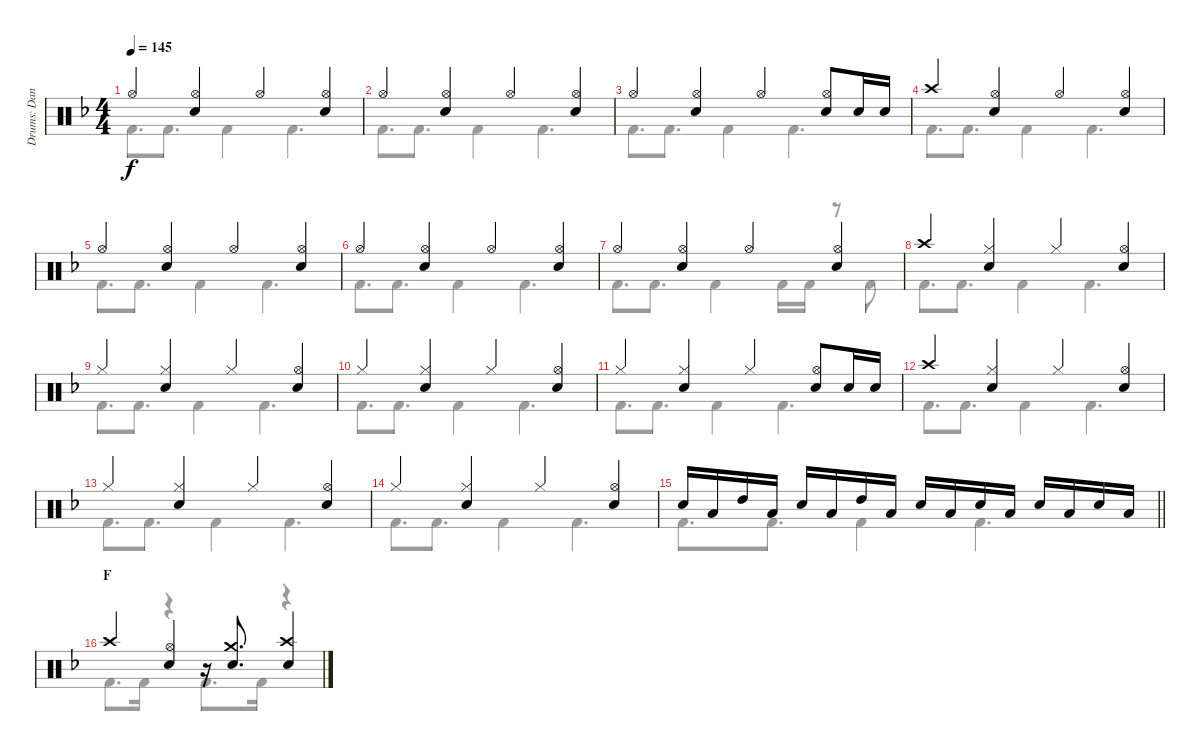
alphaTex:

\track ("Drums: Dana" "Drums: Dan") {instrument percussion}
\staff {score}
\articulation defaults
\voice
\ts (4 4)
\tempo 145
\clef neutral
\ks f "Hi-Hat (open)".4{dy f}
("Hi-Hat (open)" "Snare (hit) 2").4 "Hi-Hat (open)".4 ("Hi-Hat (open)" "Snare (hit) 2").4 |
"Hi-Hat (open)".4 ("Hi-Hat (open)" "Snare (hit) 2").4 "Hi-Hat (open)".4 ("Hi-Hat (open)" "Snare (hit) 2").4 |
"Hi-Hat (open)".4 ("Hi-Hat (open)" "Snare (hit) 2").4 "Hi-Hat (open)".4 ("Hi-Hat (open)" "Snare (hit) 2").8 "Snare (hit) 2".16 "Snare (hit) 2".16 |
"Crash high (hit)".4 ("Hi-Hat (open)" "Snare (hit) 2").4 "Hi-Hat (open)".4 ("Hi-Hat (open)" "Snare (hit) 2").4 |
"Hi-Hat (open)".4 ("Hi-Hat (open)" "Snare (hit) 2").4 "Hi-Hat (open)".4 ("Hi-Hat (open)" "Snare (hit) 2").4 |
"Hi-Hat (open)".4 ("Hi-Hat (open)" "Snare (hit) 2").4 "Hi-Hat (open)".4 ("Hi-Hat (open)" "Snare (hit) 2").4 |
"Hi-Hat (open)".4 ("Hi-Hat (open)" "Snare (hit) 2").4 "Hi-Hat (open)".4 ("Hi-Hat (open)" "Snare (hit) 2").4 |
"Crash high (hit)".4 ("Hi-Hat (closed)" "Snare (hit) 2").4 "Hi-Hat (closed)".4 ("Hi-Hat (open)" "Snare (hit) 2").4 |
"Hi-Hat (closed)".4 ("Hi-Hat (closed)" "Snare (hit) 2").4 "Hi-Hat (closed)".4 ("Hi-Hat (open)" "Snare (hit) 2").4 |
"Hi-Hat (closed)".4 ("Hi-Hat (closed)" "Snare (hit) 2").4 "Hi-Hat (closed)".4 ("Hi-Hat (open)" "Snare (hit) 2").4 |
"Hi-Hat (closed)".4 ("Hi-Hat (closed)" "Snare (hit) 2").4 "Hi-Hat (closed)".4 ("Hi-Hat (open)" "Snare (hit) 2").8 "Snare (hit) 2".16 "Snare (hit) 2".16 |
"Crash high (hit)".4 ("Hi-Hat (closed)" "Snare (hit) 2").4 "Hi-Hat (closed)".4 ("Hi-Hat (open)" "Snare (hit) 2").4 |
"Hi-Hat (closed)".4 ("Hi-Hat (closed)" "Snare (hit) 2").4 "Hi-Hat (closed)".4 ("Hi-Hat (open)" "Snare (hit) 2").4 |
"Hi-Hat (closed)".4 ("Hi-Hat (closed)" "Snare (hit) 2").4 "Hi-Hat (closed)".4 ("Hi-Hat (open)" "Snare (hit) 2").4 |
\barLineRight lightlight "Snare (hit) 2".16 "Low Tom (hit)".16 "High Tom (hit)".16 "Low Tom (hit)".16 "Snare (hit) 2".16 "Low Tom (hit)".16 "High Tom (hit)".16 "Low Tom (hit)".16 "Snare (hit) 2".16 "Low Tom (hit)".16 "Snare (hit) 2".16 "Low Tom (hit)".16 "Snare (hit) 2".16 "Low Tom (hit)".16 "Snare (hit) 2".16 "Low Tom (hit)".16
|
\section ("" "F")
"Crash high (hit)".4 ("Hi-Hat (open)" "Snare (hit) 2").4 r.16 ("Crash medium (hit)" "Snare (hit) 2").8{d} ("Crash high (hit)" "Snare (hit) 2").4
\voice
\clef neutral
\ottava regular
\simile none
\ks f "Kick (hit) 2".8{d dy f} "Kick (hit) 2".8{d} "Kick (hit) 2".4 "Kick (hit) 2".4{d}
|
"Kick (hit) 2".8{d} "Kick (hit) 2".8{d} "Kick (hit) 2".4 "Kick (hit) 2".4{d} |
"Kick (hit) 2".8{d} "Kick (hit) 2".8{d} "Kick (hit) 2".4 "Kick (hit) 2".4{d} |
"Kick (hit) 2".8{d} "Kick (hit) 2".8{d} "Kick (hit) 2".4 "Kick (hit) 2".4{d} |
"Kick (hit) 2".8{d} "Kick (hit) 2".8{d} "Kick (hit) 2".4 "Kick (hit) 2".4{d} |
"Kick (hit) 2".8{d} "Kick (hit) 2".8{d} "Kick (hit) 2".4 "Kick (hit) 2".4{d} |
"Kick (hit) 2".8{d} "Kick (hit) 2".8{d} "Kick (hit) 2".4 "Kick (hit) 2".16 "Kick (hit) 2".16 r.8 "Kick (hit) 2".8 |
"Kick (hit) 2".8{d} "Kick (hit) 2".8{d} "Kick (hit) 2".4 "Kick (hit) 2".4{d} |
"Kick (hit) 2".8{d} "Kick (hit) 2".8{d} "Kick (hit) 2".4 "Kick (hit) 2".4{d} |
"Kick (hit) 2".8{d} "Kick (hit) 2".8{d} "Kick (hit) 2".4 "Kick (hit) 2".4{d} |
"Kick (hit) 2".8{d} "Kick (hit) 2".8{d} "Kick (hit) 2".4 "Kick (hit) 2".4{d} |
"Kick (hit) 2".8{d} "Kick (hit) 2".8{d} "Kick (hit) 2".4 "Kick (hit) 2".4{d} |
"Kick (hit) 2".8{d} "Kick (hit) 2".8{d} "Kick (hit) 2".4 "Kick (hit) 2".4{d} |
"Kick (hit) 2".8{d} "Kick (hit) 2".8{d} "Kick (hit) 2".4 "Kick (hit) 2".4{d} |
\barLineRight lightlight "Kick (hit) 2".8{d} "Kick (hit) 2".8{d} "Kick (hit) 2".4 "Kick (hit) 2".4{d}
|
"Kick (hit) 2".8{d} "Kick (hit) 2".16 r.4 "Kick (hit) 2".8{d} "Kick (hit) 2".16 r.4
